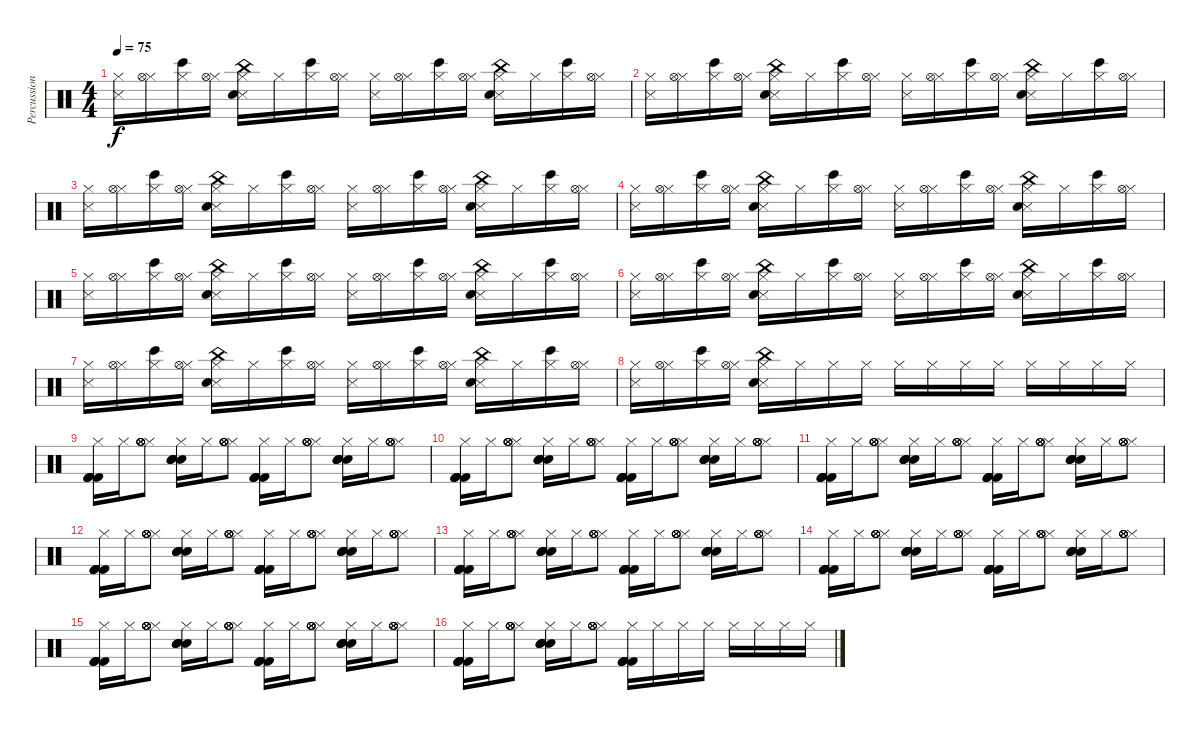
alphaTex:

\track ("Percussion" "Percussion") {instrument percussion}
\staff {score}
\articulation defaults
\ts (4 4)
\tempo 75
\clef neutral
\ks c
("Hi-Hat (closed)" "Metronome (hit)").16{dy f} ("Hi-Hat (closed)" "Hi-Hat (open)").16 ("Hi-Hat (closed)" "Bongo High (hit)").16 ("Hi-Hat (closed)" "Hi-Hat (open)").16 ("Hi-Hat (closed)" "Metronome (hit)" "Electric Snare (hit)" "China (hit)").16 "Hi-Hat (closed)".16 ("Hi-Hat (closed)" "Bongo High (hit)").16 ("Hi-Hat (closed)" "Hi-Hat (open)").16 ("Hi-Hat (closed)" "Metronome (hit)").16 ("Hi-Hat (closed)" "Hi-Hat (open)").16 ("Hi-Hat (closed)" "Bongo High (hit)").16 ("Hi-Hat (closed)" "Hi-Hat (open)").16 ("Hi-Hat (closed)" "Metronome (hit)" "Electric Snare (hit)" "China (hit)").16 "Hi-Hat (closed)".16 ("Hi-Hat (closed)" "Bongo High (hit)").16 ("Hi-Hat (closed)" "Hi-Hat (open)").16 |
("Hi-Hat (closed)" "Metronome (hit)").16 ("Hi-Hat (closed)" "Hi-Hat (open)").16 ("Hi-Hat (closed)" "Bongo High (hit)").16 ("Hi-Hat (closed)" "Hi-Hat (open)").16 ("Hi-Hat (closed)" "Metronome (hit)" "Electric Snare (hit)" "China (hit)").16 "Hi-Hat (closed)".16 ("Hi-Hat (closed)" "Bongo High (hit)").16 ("Hi-Hat (closed)" "Hi-Hat (open)").16 ("Hi-Hat (closed)" "Metronome (hit)").16 ("Hi-Hat (closed)" "Hi-Hat (open)").16 ("Hi-Hat (closed)" "Bongo High (hit)").16 ("Hi-Hat (closed)" "Hi-Hat (open)").16 ("Hi-Hat (closed)" "Metronome (hit)" "Electric Snare (hit)" "China (hit)").16 "Hi-Hat (closed)".16 ("Hi-Hat (closed)" "Bongo High (hit)").16 ("Hi-Hat (closed)" "Hi-Hat (open)").16 |
("Hi-Hat (closed)" "Metronome (hit)").16 ("Hi-Hat (closed)" "Hi-Hat (open)").16 ("Hi-Hat (closed)" "Bongo High (hit)").16 ("Hi-Hat (closed)" "Hi-Hat (open)").16 ("Hi-Hat (closed)" "Metronome (hit)" "Electric Snare (hit)" "China (hit)").16 "Hi-Hat (closed)".16 ("Hi-Hat (closed)" "Bongo High (hit)").16 ("Hi-Hat (closed)" "Hi-Hat (open)").16 ("Hi-Hat (closed)" "Metronome (hit)").16 ("Hi-Hat (closed)" "Hi-Hat (open)").16 ("Hi-Hat (closed)" "Bongo High (hit)").16 ("Hi-Hat (closed)" "Hi-Hat (open)").16 ("Hi-Hat (closed)" "Metronome (hit)" "Electric Snare (hit)" "China (hit)").16 "Hi-Hat (closed)".16 ("Hi-Hat (closed)" "Bongo High (hit)").16 ("Hi-Hat (closed)" "Hi-Hat (open)").16 |
("Hi-Hat (closed)" "Metronome (hit)").16 ("Hi-Hat (closed)" "Hi-Hat (open)").16 ("Hi-Hat (closed)" "Bongo High (hit)").16 ("Hi-Hat (closed)" "Hi-Hat (open)").16 ("Hi-Hat (closed)" "Metronome (hit)" "Electric Snare (hit)" "China (hit)").16 "Hi-Hat (closed)".16 ("Hi-Hat (closed)" "Bongo High (hit)").16 ("Hi-Hat (closed)" "Hi-Hat (open)").16 ("Hi-Hat (closed)" "Metronome (hit)").16 ("Hi-Hat (closed)" "Hi-Hat (open)").16 ("Hi-Hat (closed)" "Bongo High (hit)").16 ("Hi-Hat (closed)" "Hi-Hat (open)").16 ("Hi-Hat (closed)" "Metronome (hit)" "Electric Snare (hit)" "China (hit)").16 "Hi-Hat (closed)".16 ("Hi-Hat (closed)" "Bongo High (hit)").16 ("Hi-Hat (closed)" "Hi-Hat (open)").16 |
("Hi-Hat (closed)" "Metronome (hit)").16 ("Hi-Hat (closed)" "Hi-Hat (open)").16 ("Hi-Hat (closed)" "Bongo High (hit)").16 ("Hi-Hat (closed)" "Hi-Hat (open)").16 ("Hi-Hat (closed)" "Metronome (hit)" "Electric Snare (hit)" "China (hit)").16 "Hi-Hat (closed)".16 ("Hi-Hat (closed)" "Bongo High (hit)").16 ("Hi-Hat (closed)" "Hi-Hat (open)").16 ("Hi-Hat (closed)" "Metronome (hit)").16 ("Hi-Hat (closed)" "Hi-Hat (open)").16 ("Hi-Hat (closed)" "Bongo High (hit)").16 ("Hi-Hat (closed)" "Hi-Hat (open)").16 ("Hi-Hat (closed)" "Metronome (hit)" "Electric Snare (hit)" "China (hit)").16 "Hi-Hat (closed)".16 ("Hi-Hat (closed)" "Bongo High (hit)").16 ("Hi-Hat (closed)" "Hi-Hat (open)").16 |
("Hi-Hat (closed)" "Metronome (hit)").16 ("Hi-Hat (closed)" "Hi-Hat (open)").16 ("Hi-Hat (closed)" "Bongo High (hit)").16 ("Hi-Hat (closed)" "Hi-Hat (open)").16 ("Hi-Hat (closed)" "Metronome (hit)" "Electric Snare (hit)" "China (hit)").16 "Hi-Hat (closed)".16 ("Hi-Hat (closed)" "Bongo High (hit)").16 ("Hi-Hat (closed)" "Hi-Hat (open)").16 ("Hi-Hat (closed)" "Metronome (hit)").16 ("Hi-Hat (closed)" "Hi-Hat (open)").16 ("Hi-Hat (closed)" "Bongo High (hit)").16 ("Hi-Hat (closed)" "Hi-Hat (open)").16 ("Hi-Hat (closed)" "Metronome (hit)" "Electric Snare (hit)" "China (hit)").16 "Hi-Hat (closed)".16 ("Hi-Hat (closed)" "Bongo High (hit)").16 ("Hi-Hat (closed)" "Hi-Hat (open)").16 |
("Hi-Hat (closed)" "Metronome (hit)").16 ("Hi-Hat (closed)" "Hi-Hat (open)").16 ("Hi-Hat (closed)" "Bongo High (hit)").16 ("Hi-Hat (closed)" "Hi-Hat (open)").16 ("Hi-Hat (closed)" "Metronome (hit)" "Electric Snare (hit)" "China (hit)").16 "Hi-Hat (closed)".16 ("Hi-Hat (closed)" "Bongo High (hit)").16 ("Hi-Hat (closed)" "Hi-Hat (open)").16 ("Hi-Hat (closed)" "Metronome (hit)").16 ("Hi-Hat (closed)" "Hi-Hat (open)").16 ("Hi-Hat (closed)" "Bongo High (hit)").16 ("Hi-Hat (closed)" "Hi-Hat (open)").16 ("Hi-Hat (closed)" "Metronome (hit)" "Electric Snare (hit)" "China (hit)").16 "Hi-Hat (closed)".16 ("Hi-Hat (closed)" "Bongo High (hit)").16 ("Hi-Hat (closed)" "Hi-Hat (open)").16 |
("Hi-Hat (closed)" "Metronome (hit)").16 ("Hi-Hat (closed)" "Hi-Hat (open)").16 ("Hi-Hat (closed)" "Bongo High (hit)").16 ("Hi-Hat (closed)" "Hi-Hat (open)").16 ("Hi-Hat (closed)" "Metronome (hit)" "Electric Snare (hit)" "China (hit)").16 "Hi-Hat (closed)".16 "Hi-Hat (closed)".16 "Hi-Hat (closed)".16 "Hi-Hat (closed)".16 "Hi-Hat (closed)".16 "Hi-Hat (closed)".16 "Hi-Hat (closed)".16 "Hi-Hat (closed)".16 "Hi-Hat (closed)".16 "Hi-Hat (closed)".16 "Hi-Hat (closed)".16 |
("Hi-Hat (closed)" "Kick (hit) 2" "Kick (hit) 2" "Kick (hit) 2" "Kick (hit) 2").16 "Hi-Hat (closed)".16 ("Hi-Hat (closed)" "Hi-Hat (open)" "Hi-Hat (open)" "Hi-Hat (open)" "Hi-Hat (open)").8 ("Hi-Hat (closed)" "Electric Snare (hit)" "Electric Snare (hit)" "Electric Snare (hit)" "Electric Snare (hit)").16 "Hi-Hat (closed)".16 ("Hi-Hat (closed)" "Hi-Hat (open)" "Hi-Hat (open)" "Hi-Hat (open)" "Hi-Hat (open)").8 ("Hi-Hat (closed)" "Kick (hit) 2" "Kick (hit) 2" "Kick (hit) 2" "Kick (hit) 2").16 "Hi-Hat (closed)".16 ("Hi-Hat (closed)" "Hi-Hat (open)" "Hi-Hat (open)" "Hi-Hat (open)" "Hi-Hat (open)").8 ("Hi-Hat (closed)" "Electric Snare (hit)" "Electric Snare (hit)" "Electric Snare (hit)" "Electric Snare (hit)").16 "Hi-Hat (closed)".16 ("Hi-Hat (closed)" "Hi-Hat (open)" "Hi-Hat (open)" "Hi-Hat (open)" "Hi-Hat (open)").8 |
("Hi-Hat (closed)" "Kick (hit) 2" "Kick (hit) 2" "Kick (hit) 2" "Kick (hit) 2").16 "Hi-Hat (closed)".16 ("Hi-Hat (closed)" "Hi-Hat (open)" "Hi-Hat (open)" "Hi-Hat (open)" "Hi-Hat (open)").8 ("Hi-Hat (closed)" "Electric Snare (hit)" "Electric Snare (hit)" "Electric Snare (hit)" "Electric Snare (hit)").16 "Hi-Hat (closed)".16 ("Hi-Hat (closed)" "Hi-Hat (open)" "Hi-Hat (open)" "Hi-Hat (open)" "Hi-Hat (open)").8 ("Hi-Hat (closed)" "Kick (hit) 2" "Kick (hit) 2" "Kick (hit) 2" "Kick (hit) 2").16 "Hi-Hat (closed)".16 ("Hi-Hat (closed)" "Hi-Hat (open)" "Hi-Hat (open)" "Hi-Hat (open)" "Hi-Hat (open)").8 ("Hi-Hat (closed)" "Electric Snare (hit)" "Electric Snare (hit)" "Electric Snare (hit)" "Electric Snare (hit)").16 "Hi-Hat (closed)".16 ("Hi-Hat (closed)" "Hi-Hat (open)" "Hi-Hat (open)" "Hi-Hat (open)" "Hi-Hat (open)").8 |
("Hi-Hat (closed)" "Kick (hit) 2" "Kick (hit) 2" "Kick (hit) 2" "Kick (hit) 2").16 "Hi-Hat (closed)".16 ("Hi-Hat (closed)" "Hi-Hat (open)" "Hi-Hat (open)" "Hi-Hat (open)" "Hi-Hat (open)").8 ("Hi-Hat (closed)" "Electric Snare (hit)" "Electric Snare (hit)" "Electric Snare (hit)" "Electric Snare (hit)").16 "Hi-Hat (closed)".16 ("Hi-Hat (closed)" "Hi-Hat (open)" "Hi-Hat (open)" "Hi-Hat (open)" "Hi-Hat (open)").8 ("Hi-Hat (closed)" "Kick (hit) 2" "Kick (hit) 2" "Kick (hit) 2" "Kick (hit) 2").16 "Hi-Hat (closed)".16 ("Hi-Hat (closed)" "Hi-Hat (open)" "Hi-Hat (open)" "Hi-Hat (open)" "Hi-Hat (open)").8 ("Hi-Hat (closed)" "Electric Snare (hit)" "Electric Snare (hit)" "Electric Snare (hit)" "Electric Snare (hit)").16 "Hi-Hat (closed)".16 ("Hi-Hat (closed)" "Hi-Hat (open)" "Hi-Hat (open)" "Hi-Hat (open)" "Hi-Hat (open)").8 |
("Hi-Hat (closed)" "Kick (hit) 2" "Kick (hit) 2" "Kick (hit) 2" "Kick (hit) 2").16 "Hi-Hat (closed)".16 ("Hi-Hat (closed)" "Hi-Hat (open)" "Hi-Hat (open)" "Hi-Hat (open)" "Hi-Hat (open)").8 ("Hi-Hat (closed)" "Electric Snare (hit)" "Electric Snare (hit)" "Electric Snare (hit)" "Electric Snare (hit)").16 "Hi-Hat (closed)".16 ("Hi-Hat (closed)" "Hi-Hat (open)" "Hi-Hat (open)" "Hi-Hat (open)" "Hi-Hat (open)").8 ("Hi-Hat (closed)" "Kick (hit) 2" "Kick (hit) 2" "Kick (hit) 2" "Kick (hit) 2").16 "Hi-Hat (closed)".16 ("Hi-Hat (closed)" "Hi-Hat (open)" "Hi-Hat (open)" "Hi-Hat (open)" "Hi-Hat (open)").8 ("Hi-Hat (closed)" "Electric Snare (hit)" "Electric Snare (hit)" "Electric Snare (hit)" "Electric Snare (hit)").16 "Hi-Hat (closed)".16 ("Hi-Hat (closed)" "Hi-Hat (open)" "Hi-Hat (open)" "Hi-Hat (open)" "Hi-Hat (open)").8 |
("Hi-Hat (closed)" "Kick (hit) 2" "Kick (hit) 2" "Kick (hit) 2" "Kick (hit) 2").16 "Hi-Hat (closed)".16 ("Hi-Hat (closed)" "Hi-Hat (open)" "Hi-Hat (open)" "Hi-Hat (open)" "Hi-Hat (open)").8 ("Hi-Hat (closed)" "Electric Snare (hit)" "Electric Snare (hit)" "Electric Snare (hit)" "Electric Snare (hit)").16 "Hi-Hat (closed)".16 ("Hi-Hat (closed)" "Hi-Hat (open)" "Hi-Hat (open)" "Hi-Hat (open)" "Hi-Hat (open)").8 ("Hi-Hat (closed)" "Kick (hit) 2" "Kick (hit) 2" "Kick (hit) 2" "Kick (hit) 2").16 "Hi-Hat (closed)".16 ("Hi-Hat (closed)" "Hi-Hat (open)" "Hi-Hat (open)" "Hi-Hat (open)" "Hi-Hat (open)").8 ("Hi-Hat (closed)" "Electric Snare (hit)" "Electric Snare (hit)" "Electric Snare (hit)" "Electric Snare (hit)").16 "Hi-Hat (closed)".16 ("Hi-Hat (closed)" "Hi-Hat (open)" "Hi-Hat (open)" "Hi-Hat (open)" "Hi-Hat (open)").8 |
("Hi-Hat (closed)" "Kick (hit) 2" "Kick (hit) 2" "Kick (hit) 2" "Kick (hit) 2").16 "Hi-Hat (closed)".16 ("Hi-Hat (closed)" "Hi-Hat (open)" "Hi-Hat (open)" "Hi-Hat (open)" "Hi-Hat (open)").8 ("Hi-Hat (closed)" "Electric Snare (hit)" "Electric Snare (hit)" "Electric Snare (hit)" "Electric Snare (hit)").16 "Hi-Hat (closed)".16 ("Hi-Hat (closed)" "Hi-Hat (open)" "Hi-Hat (open)" "Hi-Hat (open)" "Hi-Hat (open)").8 ("Hi-Hat (closed)" "Kick (hit) 2" "Kick (hit) 2" "Kick (hit) 2" "Kick (hit) 2").16 "Hi-Hat (closed)".16 ("Hi-Hat (closed)" "Hi-Hat (open)" "Hi-Hat (open)" "Hi-Hat (open)" "Hi-Hat (open)").8 ("Hi-Hat (closed)" "Electric Snare (hit)" "Electric Snare (hit)" "Electric Snare (hit)" "Electric Snare (hit)").16 "Hi-Hat (closed)".16 ("Hi-Hat (closed)" "Hi-Hat (open)" "Hi-Hat (open)" "Hi-Hat (open)" "Hi-Hat (open)").8 |
("Hi-Hat (closed)" "Kick (hit) 2" "Kick (hit) 2" "Kick (hit) 2" "Kick (hit) 2").16 "Hi-Hat (closed)".16 ("Hi-Hat (closed)" "Hi-Hat (open)" "Hi-Hat (open)" "Hi-Hat (open)" "Hi-Hat (open)").8 ("Hi-Hat (closed)" "Electric Snare (hit)" "Electric Snare (hit)" "Electric Snare (hit)" "Electric Snare (hit)").16 "Hi-Hat (closed)".16 ("Hi-Hat (closed)" "Hi-Hat (open)" "Hi-Hat (open)" "Hi-Hat (open)" "Hi-Hat (open)").8 ("Hi-Hat (closed)" "Kick (hit) 2" "Kick (hit) 2" "Kick (hit) 2" "Kick (hit) 2").16 "Hi-Hat (closed)".16 ("Hi-Hat (closed)" "Hi-Hat (open)" "Hi-Hat (open)" "Hi-Hat (open)" "Hi-Hat (open)").8 ("Hi-Hat (closed)" "Electric Snare (hit)" "Electric Snare (hit)" "Electric Snare (hit)" "Electric Snare (hit)").16 "Hi-Hat (closed)".16 ("Hi-Hat (closed)" "Hi-Hat (open)" "Hi-Hat (open)" "Hi-Hat (open)" "Hi-Hat (open)").8 |
("Hi-Hat (closed)" "Kick (hit) 2" "Kick (hit) 2" "Kick (hit) 2" "Kick (hit) 2").16 "Hi-Hat (closed)".16 ("Hi-Hat (closed)" "Hi-Hat (open)" "Hi-Hat (open)" "Hi-Hat (open)" "Hi-Hat (open)").8 ("Hi-Hat (closed)" "Electric Snare (hit)" "Electric Snare (hit)" "Electric Snare (hit)" "Electric Snare (hit)").16 "Hi-Hat (closed)".16 ("Hi-Hat (closed)" "Hi-Hat (open)" "Hi-Hat (open)" "Hi-Hat (open)" "Hi-Hat (open)").8 ("Hi-Hat (closed)" "Kick (hit) 2" "Kick (hit) 2" "Kick (hit) 2" "Kick (hit) 2").16 "Hi-Hat (closed)".16 "Hi-Hat (closed)".16 "Hi-Hat (closed)".16 "Hi-Hat (closed)".16 "Hi-Hat (closed)".16 "Hi-Hat (closed)".16 "Hi-Hat (closed)".16
